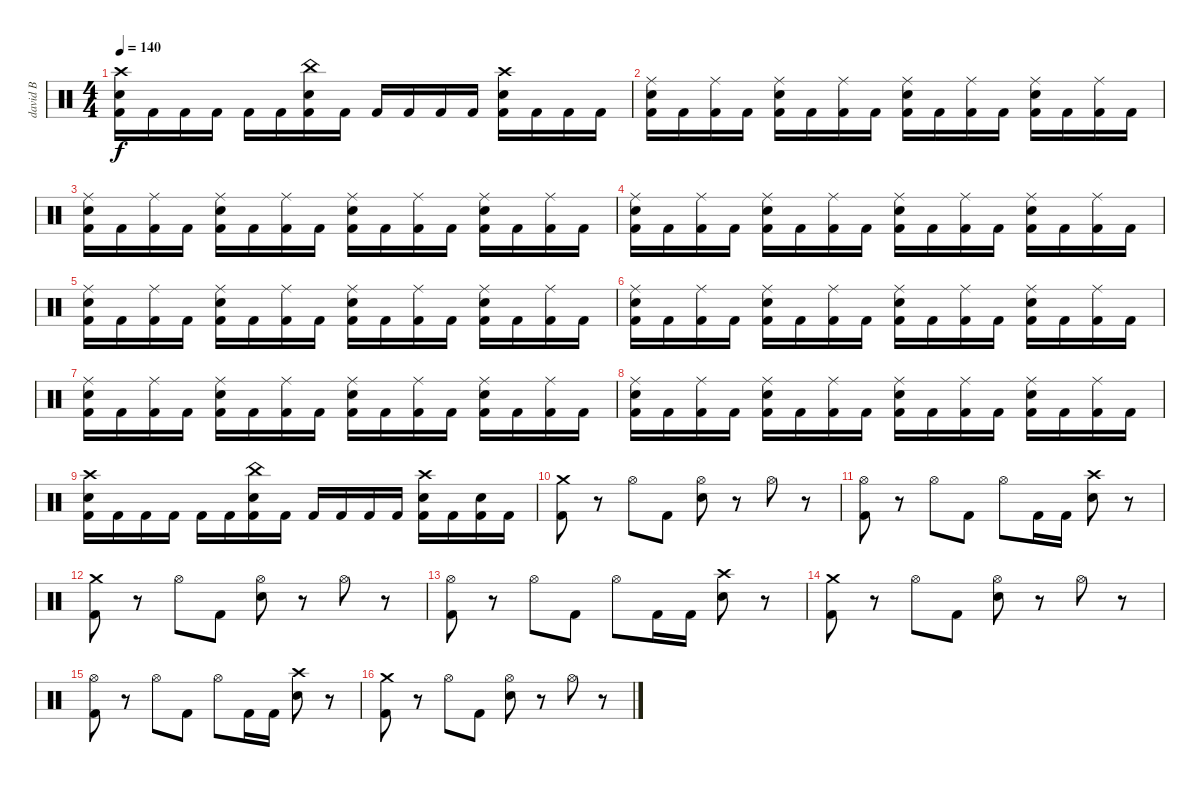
\track ("david B" "david B") {instrument percussion}
\staff {score}
\articulation defaults
\ts (4 4)
\tempo 140
\clef neutral
\ks c
("Crash high (hit)" "Electric Snare (hit)" "Kick (hit) 2").16{dy f} "Kick (hit) 2".16 "Kick (hit) 2".16 "Kick (hit) 2".16 "Kick (hit) 2".16 "Kick (hit) 2".16 ("China (hit)" "Electric Snare (hit)" "Kick (hit) 2").16 "Kick (hit) 2".16 "Kick (hit) 2".16 "Kick (hit) 2".16 "Kick (hit) 2".16 "Kick (hit) 2".16 ("Crash high (hit)" "Electric Snare (hit)" "Kick (hit) 2").16 "Kick (hit) 2".16 "Kick (hit) 2".16 "Kick (hit) 2".16 |
("Ride (middle)" "Electric Snare (hit)" "Kick (hit) 2").16 "Kick (hit) 2".16 ("Ride (middle)" "Kick (hit) 2").16 "Kick (hit) 2".16 ("Ride (middle)" "Electric Snare (hit)" "Kick (hit) 2").16 "Kick (hit) 2".16 ("Ride (middle)" "Kick (hit) 2").16 "Kick (hit) 2".16 ("Ride (middle)" "Electric Snare (hit)" "Kick (hit) 2").16 "Kick (hit) 2".16 ("Ride (middle)" "Kick (hit) 2").16 "Kick (hit) 2".16 ("Ride (middle)" "Electric Snare (hit)" "Kick (hit) 2").16 "Kick (hit) 2".16 ("Ride (middle)" "Kick (hit) 2").16 "Kick (hit) 2".16 |
("Ride (middle)" "Electric Snare (hit)" "Kick (hit) 2").16 "Kick (hit) 2".16 ("Ride (middle)" "Kick (hit) 2").16 "Kick (hit) 2".16 ("Ride (middle)" "Electric Snare (hit)" "Kick (hit) 2").16 "Kick (hit) 2".16 ("Ride (middle)" "Kick (hit) 2").16 "Kick (hit) 2".16 ("Ride (middle)" "Electric Snare (hit)" "Kick (hit) 2").16 "Kick (hit) 2".16 ("Ride (middle)" "Kick (hit) 2").16 "Kick (hit) 2".16 ("Ride (middle)" "Electric Snare (hit)" "Kick (hit) 2").16 "Kick (hit) 2".16 ("Ride (middle)" "Kick (hit) 2").16 "Kick (hit) 2".16 |
("Ride (middle)" "Electric Snare (hit)" "Kick (hit) 2").16 "Kick (hit) 2".16 ("Ride (middle)" "Kick (hit) 2").16 "Kick (hit) 2".16 ("Ride (middle)" "Electric Snare (hit)" "Kick (hit) 2").16 "Kick (hit) 2".16 ("Ride (middle)" "Kick (hit) 2").16 "Kick (hit) 2".16 ("Ride (middle)" "Electric Snare (hit)" "Kick (hit) 2").16 "Kick (hit) 2".16 ("Ride (middle)" "Kick (hit) 2").16 "Kick (hit) 2".16 ("Ride (middle)" "Electric Snare (hit)" "Kick (hit) 2").16 "Kick (hit) 2".16 ("Ride (middle)" "Kick (hit) 2").16 "Kick (hit) 2".16 |
("Ride (middle)" "Electric Snare (hit)" "Kick (hit) 2").16 "Kick (hit) 2".16 ("Ride (middle)" "Kick (hit) 2").16 "Kick (hit) 2".16 ("Ride (middle)" "Electric Snare (hit)" "Kick (hit) 2").16 "Kick (hit) 2".16 ("Ride (middle)" "Kick (hit) 2").16 "Kick (hit) 2".16 ("Ride (middle)" "Electric Snare (hit)" "Kick (hit) 2").16 "Kick (hit) 2".16 ("Ride (middle)" "Kick (hit) 2").16 "Kick (hit) 2".16 ("Ride (middle)" "Electric Snare (hit)" "Kick (hit) 2").16 "Kick (hit) 2".16 ("Ride (middle)" "Kick (hit) 2").16 "Kick (hit) 2".16 |
("Ride (middle)" "Electric Snare (hit)" "Kick (hit) 2").16 "Kick (hit) 2".16 ("Ride (middle)" "Kick (hit) 2").16 "Kick (hit) 2".16 ("Ride (middle)" "Electric Snare (hit)" "Kick (hit) 2").16 "Kick (hit) 2".16 ("Ride (middle)" "Kick (hit) 2").16 "Kick (hit) 2".16 ("Ride (middle)" "Electric Snare (hit)" "Kick (hit) 2").16 "Kick (hit) 2".16 ("Ride (middle)" "Kick (hit) 2").16 "Kick (hit) 2".16 ("Ride (middle)" "Electric Snare (hit)" "Kick (hit) 2").16 "Kick (hit) 2".16 ("Ride (middle)" "Kick (hit) 2").16 "Kick (hit) 2".16 |
("Ride (middle)" "Electric Snare (hit)" "Kick (hit) 2").16 "Kick (hit) 2".16 ("Ride (middle)" "Kick (hit) 2").16 "Kick (hit) 2".16 ("Ride (middle)" "Electric Snare (hit)" "Kick (hit) 2").16 "Kick (hit) 2".16 ("Ride (middle)" "Kick (hit) 2").16 "Kick (hit) 2".16 ("Ride (middle)" "Electric Snare (hit)" "Kick (hit) 2").16 "Kick (hit) 2".16 ("Ride (middle)" "Kick (hit) 2").16 "Kick (hit) 2".16 ("Ride (middle)" "Electric Snare (hit)" "Kick (hit) 2").16 "Kick (hit) 2".16 ("Ride (middle)" "Kick (hit) 2").16 "Kick (hit) 2".16 |
("Ride (middle)" "Electric Snare (hit)" "Kick (hit) 2").16 "Kick (hit) 2".16 ("Ride (middle)" "Kick (hit) 2").16 "Kick (hit) 2".16 ("Ride (middle)" "Electric Snare (hit)" "Kick (hit) 2").16 "Kick (hit) 2".16 ("Ride (middle)" "Kick (hit) 2").16 "Kick (hit) 2".16 ("Ride (middle)" "Electric Snare (hit)" "Kick (hit) 2").16 "Kick (hit) 2".16 ("Ride (middle)" "Kick (hit) 2").16 "Kick (hit) 2".16 ("Ride (middle)" "Electric Snare (hit)" "Kick (hit) 2").16 "Kick (hit) 2".16 ("Ride (middle)" "Kick (hit) 2").16 "Kick (hit) 2".16 |
("Crash high (hit)" "Electric Snare (hit)" "Kick (hit) 2").16 "Kick (hit) 2".16 "Kick (hit) 2".16 "Kick (hit) 2".16 "Kick (hit) 2".16 "Kick (hit) 2".16 ("China (hit)" "Electric Snare (hit)" "Kick (hit) 2").16 "Kick (hit) 2".16 "Kick (hit) 2".16 "Kick (hit) 2".16 "Kick (hit) 2".16 "Kick (hit) 2".16 ("Crash high (hit)" "Electric Snare (hit)" "Kick (hit) 2").16 "Kick (hit) 2".16 ("Electric Snare (hit)" "Kick (hit) 2").16 "Kick (hit) 2".16 |
("Crash medium (hit)" "Kick (hit) 2").8 r.8 "Hi-Hat (open)".8 "Kick (hit) 2".8 ("Hi-Hat (open)" "Electric Snare (hit)").8 r.8 "Hi-Hat (open)".8 r.8 |
("Hi-Hat (open)" "Kick (hit) 2").8 r.8 "Hi-Hat (open)".8 "Kick (hit) 2".8 "Hi-Hat (open)".8 "Kick (hit) 2".16 "Kick (hit) 2".16 ("Crash high (hit)" "Electric Snare (hit)").8 r.8 |
("Crash medium (hit)" "Kick (hit) 2").8 r.8 "Hi-Hat (open)".8 "Kick (hit) 2".8 ("Hi-Hat (open)" "Electric Snare (hit)").8 r.8 "Hi-Hat (open)".8 r.8 |
("Hi-Hat (open)" "Kick (hit) 2").8 r.8 "Hi-Hat (open)".8 "Kick (hit) 2".8 "Hi-Hat (open)".8 "Kick (hit) 2".16 "Kick (hit) 2".16 ("Crash high (hit)" "Electric Snare (hit)").8 r.8 |
("Crash medium (hit)" "Kick (hit) 2").8 r.8 "Hi-Hat (open)".8 "Kick (hit) 2".8 ("Hi-Hat (open)" "Electric Snare (hit)").8 r.8 "Hi-Hat (open)".8 r.8 |
("Hi-Hat (open)" "Kick (hit) 2").8 r.8 "Hi-Hat (open)".8 "Kick (hit) 2".8 "Hi-Hat (open)".8 "Kick (hit) 2".16 "Kick (hit) 2".16 ("Crash high (hit)" "Electric Snare (hit)").8 r.8 |
("Crash medium (hit)" "Kick (hit) 2").8 r.8 "Hi-Hat (open)".8 "Kick (hit) 2".8 ("Hi-Hat (open)" "Electric Snare (hit)").8 r.8 "Hi-Hat (open)".8 r.8
